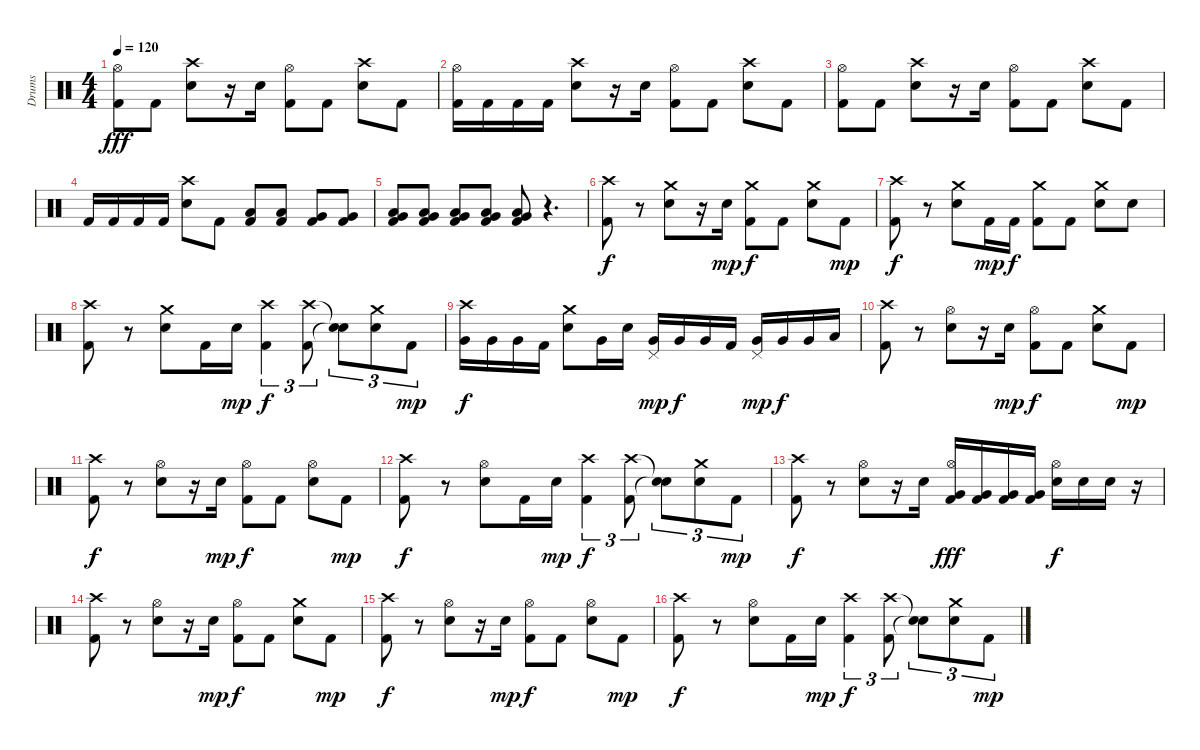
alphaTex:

\track ("Drums" "Drums") {instrument percussion}
\staff {score}
\articulation defaults
\ts (4 4)
\tempo 120
\clef neutral
\ks c
("Kick (hit) 2" "Hi-Hat (open)").8{dy fff} "Kick (hit) 2".8 ("Electric Snare (hit)" "Crash high (hit)").8 r.16 "Electric Snare (hit)".16 ("Kick (hit) 2" "Hi-Hat (open)").8 "Kick (hit) 2".8 ("Electric Snare (hit)" "Crash high (hit)").8 "Kick (hit) 2".8 |
("Kick (hit) 2" "Hi-Hat (open)").16 "Kick (hit) 2".16 "Kick (hit) 2".16 "Kick (hit) 2".16 ("Electric Snare (hit)" "Crash high (hit)").8 r.16 "Electric Snare (hit)".16 ("Kick (hit) 2" "Hi-Hat (open)").8 "Kick (hit) 2".8 ("Electric Snare (hit)" "Crash high (hit)").8 "Kick (hit) 2".8 |
("Kick (hit) 2" "Hi-Hat (open)").8 "Kick (hit) 2".8 ("Electric Snare (hit)" "Crash high (hit)").8 r.16 "Electric Snare (hit)".16 ("Kick (hit) 2" "Hi-Hat (open)").8 "Kick (hit) 2".8 ("Electric Snare (hit)" "Crash high (hit)").8 "Kick (hit) 2".8 |
"Kick (hit) 2".16 "Kick (hit) 2".16 "Kick (hit) 2".16 "Kick (hit) 2".16 ("Electric Snare (hit)" "Crash high (hit)").8 "Kick (hit) 2".8 ("Kick (hit) 2" "Low Floor Tom (hit)").8 ("Kick (hit) 2" "Low Floor Tom (hit)").8 ("Kick (hit) 2" "Very Low Tom (hit)").8 ("Kick (hit) 2" "Very Low Tom (hit)").8 |
("Kick (hit) 2" "Very Low Tom (hit)" "Low Floor Tom (hit)").8 ("Kick (hit) 2" "Very Low Tom (hit)" "Low Floor Tom (hit)").8 ("Kick (hit) 2" "Very Low Tom (hit)" "Low Floor Tom (hit)").8 ("Kick (hit) 2" "Very Low Tom (hit)" "Low Floor Tom (hit)").8 ("Kick (hit) 2" "Very Low Tom (hit)" "Low Floor Tom (hit)").8 r.4{d} |
("Kick (hit) 2" "Crash high (hit)").8{dy f} r.8 ("Electric Snare (hit)" "Crash medium (hit)").8 r.16 "Snare (hit) 2".16{dy mp} ("Kick (hit) 2" "Crash medium (hit)").8{dy f} "Kick (hit) 2".8 ("Electric Snare (hit)" "Crash medium (hit)").8 "Kick (hit) 2".8{dy mp} |
("Kick (hit) 2" "Crash high (hit)").8{dy f} r.8 ("Electric Snare (hit)" "Crash medium (hit)").8 "Kick (hit) 2".16{dy mp} "Kick (hit) 2".16{dy f} ("Kick (hit) 2" "Crash medium (hit)").8 "Kick (hit) 2".8 ("Electric Snare (hit)" "Crash medium (hit)").8 "Electric Snare (hit)".8 |
("Kick (hit) 2" "Crash high (hit)").8 r.8 ("Electric Snare (hit)" "Crash medium (hit)").8 "Kick (hit) 2".16 "Snare (hit) 2".16{dy mp} ("Kick (hit) 2" "Crash high (hit)").4{tu (3 2) dy f} ("Kick (hit) 2" "Crash high (hit)").8{tu (3 2)} ("Snare (hit)"{t} "Snare (hit)"{t}).8{tu (3 2)} ("Electric Snare (hit)" "Crash medium (hit)").8{tu (3 2)} "Kick (hit) 2".8{tu (3 2) dy mp} |
("Very Low Tom (hit)" "Crash high (hit)").16{dy f} "Very Low Tom (hit)".16 "Very Low Tom (hit)".16 "Kick (hit) 2".16 ("Electric Snare (hit)" "Crash medium (hit)").8 "Very Low Tom (hit)".16 "Electric Snare (hit)".16 ("Very Low Tom (hit)" "Pedal Hi-Hat (hit)").16{dy mp} "Very Low Tom (hit)".16{dy f} "Very Low Tom (hit)".16 "Kick (hit) 2".16 ("Very Low Tom (hit)" "Pedal Hi-Hat (hit)").16{dy mp} "Very Low Tom (hit)".16{dy f} "Very Low Tom (hit)".16 "Low Floor Tom (hit)".16 |
("Kick (hit) 2" "Crash high (hit)").8 r.8 ("Electric Snare (hit)" "Hi-Hat (open)").8 r.16 "Snare (hit) 2".16{dy mp} ("Kick (hit) 2" "Hi-Hat (open)").8{dy f} "Kick (hit) 2".8 ("Electric Snare (hit)" "Crash medium (hit)").8 "Kick (hit) 2".8{dy mp} |
("Kick (hit) 2" "Crash high (hit)").8{dy f} r.8 ("Electric Snare (hit)" "Hi-Hat (open)").8 r.16 "Snare (hit) 2".16{dy mp} ("Kick (hit) 2" "Hi-Hat (open)").8{dy f} "Kick (hit) 2".8 ("Electric Snare (hit)" "Hi-Hat (open)").8 "Kick (hit) 2".8{dy mp} |
("Kick (hit) 2" "Crash high (hit)").8{dy f} r.8 ("Electric Snare (hit)" "Hi-Hat (open)").8 "Kick (hit) 2".16 "Snare (hit) 2".16{dy mp} ("Kick (hit) 2" "Crash high (hit)").4{tu (3 2) dy f} ("Kick (hit) 2" "Crash high (hit)").8{tu (3 2)} ("Snare (hit)"{t} "Snare (hit)"{t}).8{tu (3 2)} ("Electric Snare (hit)" "Crash medium (hit)").8{tu (3 2)} "Kick (hit) 2".8{tu (3 2) dy mp} |
("Kick (hit) 2" "Crash high (hit)").8{dy f} r.8 ("Electric Snare (hit)" "Hi-Hat (open)").8 r.16 "Snare (hit) 2".16 ("Kick (hit) 2" "Very Low Tom (hit)" "Hi-Hat (open)").16{dy fff} ("Kick (hit) 2" "Very Low Tom (hit)").16 ("Kick (hit) 2" "Very Low Tom (hit)").16 ("Kick (hit) 2" "Very Low Tom (hit)").16 ("Electric Snare (hit)" "Hi-Hat (open)").16{dy f} "Electric Snare (hit)".16 "Electric Snare (hit)".16 r.16 |
("Kick (hit) 2" "Crash high (hit)").8 r.8 ("Electric Snare (hit)" "Hi-Hat (open)").8 r.16 "Snare (hit) 2".16{dy mp} ("Kick (hit) 2" "Hi-Hat (open)").8{dy f} "Kick (hit) 2".8 ("Electric Snare (hit)" "Crash medium (hit)").8 "Kick (hit) 2".8{dy mp} |
("Kick (hit) 2" "Crash high (hit)").8{dy f} r.8 ("Electric Snare (hit)" "Hi-Hat (open)").8 r.16 "Snare (hit) 2".16{dy mp} ("Kick (hit) 2" "Hi-Hat (open)").8{dy f} "Kick (hit) 2".8 ("Electric Snare (hit)" "Hi-Hat (open)").8 "Kick (hit) 2".8{dy mp} |
("Kick (hit) 2" "Crash high (hit)").8{dy f} r.8 ("Electric Snare (hit)" "Hi-Hat (open)").8 "Kick (hit) 2".16 "Snare (hit) 2".16{dy mp} ("Kick (hit) 2" "Crash high (hit)").4{tu (3 2) dy f} ("Kick (hit) 2" "Crash high (hit)").8{tu (3 2)} ("Snare (hit)"{t} "Snare (hit)"{t}).8{tu (3 2)} ("Electric Snare (hit)" "Crash medium (hit)").8{tu (3 2)} "Kick (hit) 2".8{tu (3 2) dy mp}
